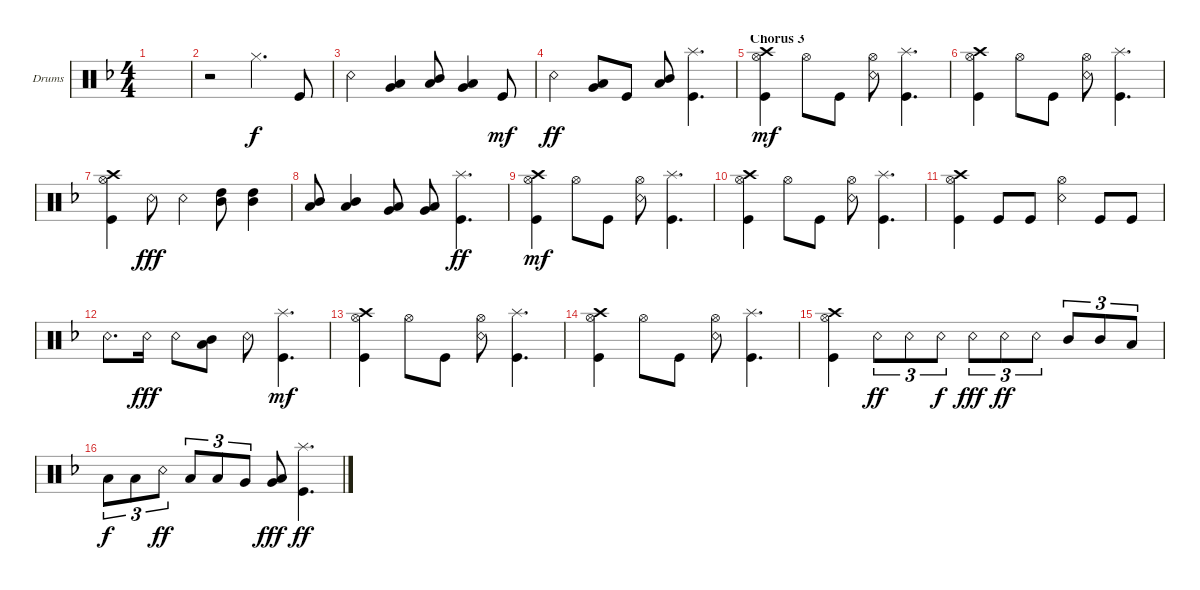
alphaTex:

\bracketExtendMode groupsimilarinstruments
\firstSystemTrackNameOrientation horizontal
\otherSystemsTrackNameOrientation horizontal
\track ("Drumkit" "Drums") {instrument percussion}
\staff {score}
\articulation defaults
\ts (4 4)
\tempo (125 hide)
\clef neutral
\scale
0.333333
\ks dminor
|
\scale
0.333333 r.2 "Hi-Hat (closed)".4{d} "Kick (hit)".8 |
\scale
0.333333 "Snare (rim shot)".4{dy f} ("Very Low Tom (hit)" "Low Tom (hit)").4 ("Mid Tom (hit)" "Low Tom (hit)").8 ("Very Low Tom (hit)" "Low Tom (hit)").4 "Kick (hit)".8{dy mf} |
\scale
0.333333 "Snare (rim shot)".4{dy ff} ("Very Low Tom (hit)" "Low Tom (hit)").8 "Kick (hit)".8 ("Mid Tom (hit)" "Low Tom (hit)").8 ("Splash (hit)" "Kick (hit)").4{d} |
\section ("" "Chorus 3")
\scale
0.333333 ("Hi-Hat (open)" "Kick (hit)" "Crash high (hit)").4{dy mf} "Hi-Hat (open)".8 "Kick (hit)".8 ("Hi-Hat (open)" "Snare (rim shot)").8 ("Kick (hit)" "Splash (hit)").4{d} |
\scale
0.333333 ("Hi-Hat (open)" "Kick (hit)" "Crash high (hit)").4 "Hi-Hat (open)".8 "Kick (hit)".8 ("Hi-Hat (open)" "Snare (rim shot)").8 ("Kick (hit)" "Splash (hit)").4{d} |
\scale
0.333333 ("Hi-Hat (open)" "Kick (hit)" "Crash high (hit)").4 "Snare (rim shot)".8{dy fff} "Snare (rim shot)".4 ("High Tom (hit)" "Mid Tom (hit)").8 ("High Tom (hit)" "Mid Tom (hit)").4 |
\scale
0.333333 ("Low Tom (hit)" "Mid Tom (hit)").8 ("Mid Tom (hit)" "Low Tom (hit)").4 ("Low Tom (hit)" "Very Low Tom (hit)").8 ("Very Low Tom (hit)" "Low Tom (hit)").8 ("Splash (hit)" "Kick (hit)").4{d dy ff} |
\scale
0.333333 ("Hi-Hat (open)" "Kick (hit)" "Crash high (hit)").4{dy mf} "Hi-Hat (open)".8 "Kick (hit)".8 ("Hi-Hat (open)" "Snare (rim shot)").8 ("Kick (hit)" "Splash (hit)").4{d} |
\scale
0.333333 ("Hi-Hat (open)" "Kick (hit)" "Crash high (hit)").4 "Hi-Hat (open)".8 "Kick (hit)".8 ("Hi-Hat (open)" "Snare (rim shot)").8 ("Kick (hit)" "Splash (hit)").4{d} |
\scale
0.333333 ("Hi-Hat (open)" "Kick (hit)" "Crash high (hit)").4 "Kick (hit)".8 "Kick (hit)".8 ("Hi-Hat (open)" "Snare (rim shot)").4 "Kick (hit)".8 "Kick (hit)".8 |
\scale
0.333333 "Snare (rim shot)".8{d} "Snare (rim shot)".16{dy fff} "Snare (rim shot)".8 ("Low Tom (hit)" "Mid Tom (hit)").8 "Snare (rim shot)".8 ("Kick (hit)" "Splash (hit)").4{d dy mf} |
\scale
0.333333 ("Hi-Hat (open)" "Kick (hit)" "Crash high (hit)").4 "Hi-Hat (open)".8 "Kick (hit)".8 ("Hi-Hat (open)" "Snare (rim shot)").8 ("Kick (hit)" "Splash (hit)").4{d} |
\scale
0.333333 ("Hi-Hat (open)" "Kick (hit)" "Crash high (hit)").4 "Hi-Hat (open)".8 "Kick (hit)".8 ("Hi-Hat (open)" "Snare (rim shot)").8 ("Kick (hit)" "Splash (hit)").4{d} |
\scale
0.333333 ("Hi-Hat (open)" "Kick (hit)" "Crash high (hit)").4 "Snare (rim shot)".8{tu (3 2) dy ff} "Snare (rim shot)".8{tu (3 2)} "Snare (rim shot)".8{tu (3 2) dy f} "Snare (rim shot)".8{tu (3 2) dy fff} "Snare (rim shot)".8{tu (3 2) dy ff} "Snare (rim shot)".8{tu (3 2)} "Mid Tom (hit)".8{tu (3 2)} "Mid Tom (hit)".8{tu (3 2)} "Low Tom (hit)".8{tu (3 2)} |
\scale
0.333333 "Low Tom (hit)".8{tu (3 2) dy f} "Low Tom (hit)".8{tu (3 2)} "Snare (rim shot)".8{tu (3 2) dy ff} "Low Tom (hit)".8{tu (3 2)} "Low Tom (hit)".8{tu (3 2)} "Very Low Tom (hit)".8{tu (3 2)} ("Low Tom (hit)" "Very Low Tom (hit)").8{dy fff} ("Splash (hit)" "Kick (hit)").4{d dy ff}
